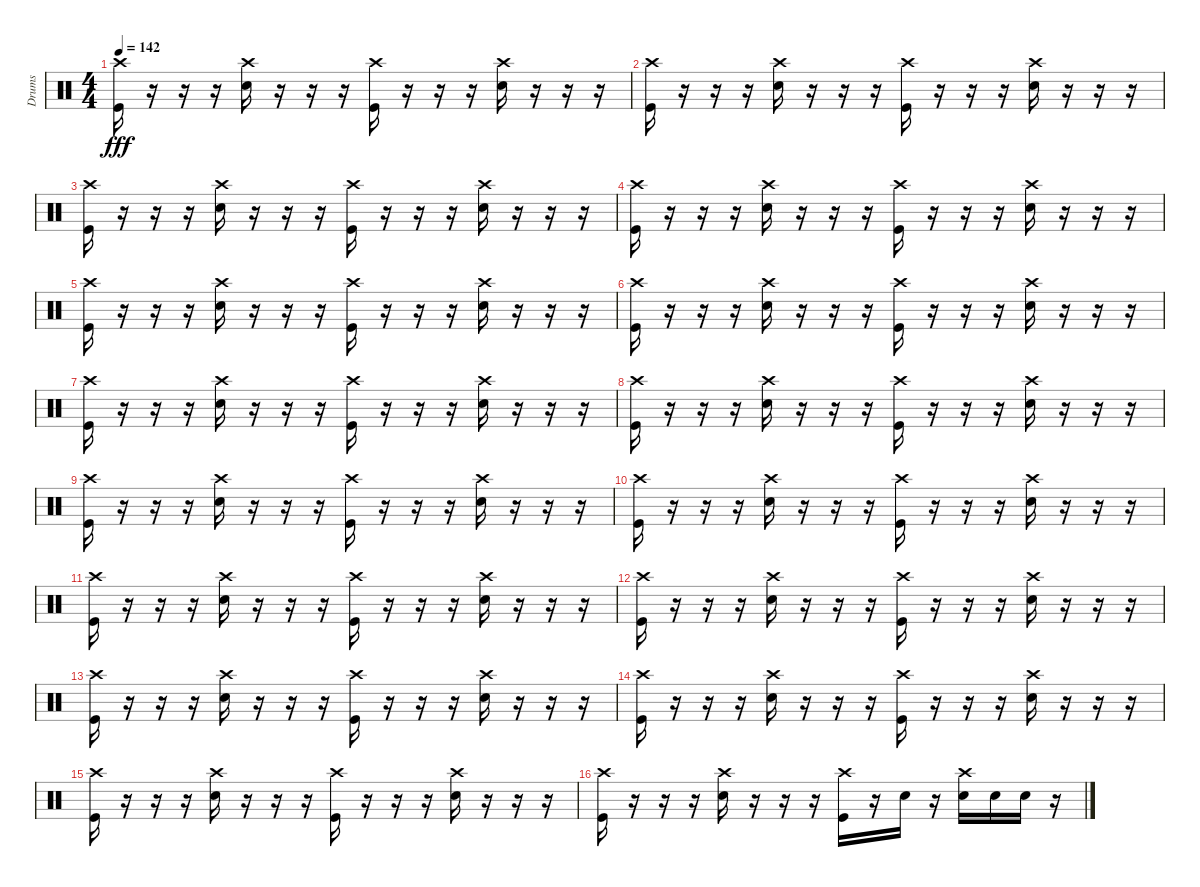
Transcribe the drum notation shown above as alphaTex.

\track ("Drums" "Drums") {instrument percussion}
\staff {score}
\articulation defaults
\ts (4 4)
\tempo 142
\clef neutral
\ks c
("Kick (hit)" "Crash high (hit)").16{dy fff} r.16 r.16 r.16 ("Snare (hit) 2" "Crash high (hit)").16 r.16 r.16 r.16 ("Kick (hit)" "Crash high (hit)").16 r.16 r.16 r.16 ("Snare (hit) 2" "Crash high (hit)").16 r.16 r.16 r.16 |
("Kick (hit)" "Crash high (hit)").16 r.16 r.16 r.16 ("Snare (hit) 2" "Crash high (hit)").16 r.16 r.16 r.16 ("Kick (hit)" "Crash high (hit)").16 r.16 r.16 r.16 ("Snare (hit) 2" "Crash high (hit)").16 r.16 r.16 r.16 |
("Kick (hit)" "Crash high (hit)").16 r.16 r.16 r.16 ("Snare (hit) 2" "Crash high (hit)").16 r.16 r.16 r.16 ("Kick (hit)" "Crash high (hit)").16 r.16 r.16 r.16 ("Snare (hit) 2" "Crash high (hit)").16 r.16 r.16 r.16 |
("Kick (hit)" "Crash high (hit)").16 r.16 r.16 r.16 ("Snare (hit) 2" "Crash high (hit)").16 r.16 r.16 r.16 ("Kick (hit)" "Crash high (hit)").16 r.16 r.16 r.16 ("Snare (hit) 2" "Crash high (hit)").16 r.16 r.16 r.16 |
("Kick (hit)" "Crash high (hit)").16 r.16 r.16 r.16 ("Snare (hit) 2" "Crash high (hit)").16 r.16 r.16 r.16 ("Kick (hit)" "Crash high (hit)").16 r.16 r.16 r.16 ("Snare (hit) 2" "Crash high (hit)").16 r.16 r.16 r.16 |
("Kick (hit)" "Crash high (hit)").16 r.16 r.16 r.16 ("Snare (hit) 2" "Crash high (hit)").16 r.16 r.16 r.16 ("Kick (hit)" "Crash high (hit)").16 r.16 r.16 r.16 ("Snare (hit) 2" "Crash high (hit)").16 r.16 r.16 r.16 |
("Kick (hit)" "Crash high (hit)").16 r.16 r.16 r.16 ("Snare (hit) 2" "Crash high (hit)").16 r.16 r.16 r.16 ("Kick (hit)" "Crash high (hit)").16 r.16 r.16 r.16 ("Snare (hit) 2" "Crash high (hit)").16 r.16 r.16 r.16 |
("Kick (hit)" "Crash high (hit)").16 r.16 r.16 r.16 ("Snare (hit) 2" "Crash high (hit)").16 r.16 r.16 r.16 ("Kick (hit)" "Crash high (hit)").16 r.16 r.16 r.16 ("Snare (hit) 2" "Crash high (hit)").16 r.16 r.16 r.16 |
("Kick (hit)" "Crash high (hit)").16 r.16 r.16 r.16 ("Snare (hit) 2" "Crash high (hit)").16 r.16 r.16 r.16 ("Kick (hit)" "Crash high (hit)").16 r.16 r.16 r.16 ("Snare (hit) 2" "Crash high (hit)").16 r.16 r.16 r.16 |
("Kick (hit)" "Crash high (hit)").16 r.16 r.16 r.16 ("Snare (hit) 2" "Crash high (hit)").16 r.16 r.16 r.16 ("Kick (hit)" "Crash high (hit)").16 r.16 r.16 r.16 ("Snare (hit) 2" "Crash high (hit)").16 r.16 r.16 r.16 |
("Kick (hit)" "Crash high (hit)").16 r.16 r.16 r.16 ("Snare (hit) 2" "Crash high (hit)").16 r.16 r.16 r.16 ("Kick (hit)" "Crash high (hit)").16 r.16 r.16 r.16 ("Snare (hit) 2" "Crash high (hit)").16 r.16 r.16 r.16 |
("Kick (hit)" "Crash high (hit)").16 r.16 r.16 r.16 ("Snare (hit) 2" "Crash high (hit)").16 r.16 r.16 r.16 ("Kick (hit)" "Crash high (hit)").16 r.16 r.16 r.16 ("Snare (hit) 2" "Crash high (hit)").16 r.16 r.16 r.16 |
("Kick (hit)" "Crash high (hit)").16 r.16 r.16 r.16 ("Snare (hit) 2" "Crash high (hit)").16 r.16 r.16 r.16 ("Kick (hit)" "Crash high (hit)").16 r.16 r.16 r.16 ("Snare (hit) 2" "Crash high (hit)").16 r.16 r.16 r.16 |
("Kick (hit)" "Crash high (hit)").16 r.16 r.16 r.16 ("Snare (hit) 2" "Crash high (hit)").16 r.16 r.16 r.16 ("Kick (hit)" "Crash high (hit)").16 r.16 r.16 r.16 ("Snare (hit) 2" "Crash high (hit)").16 r.16 r.16 r.16 |
("Kick (hit)" "Crash high (hit)").16 r.16 r.16 r.16 ("Snare (hit) 2" "Crash high (hit)").16 r.16 r.16 r.16 ("Kick (hit)" "Crash high (hit)").16 r.16 r.16 r.16 ("Snare (hit) 2" "Crash high (hit)").16 r.16 r.16 r.16 |
("Kick (hit)" "Crash high (hit)").16 r.16 r.16 r.16 ("Snare (hit) 2" "Crash high (hit)").16 r.16 r.16 r.16 ("Kick (hit)" "Crash high (hit)").16 r.16 "Snare (hit) 2".16 r.16 ("Snare (hit) 2" "Crash high (hit)").16 "Snare (hit) 2".16 "Snare (hit) 2".16 r.16
